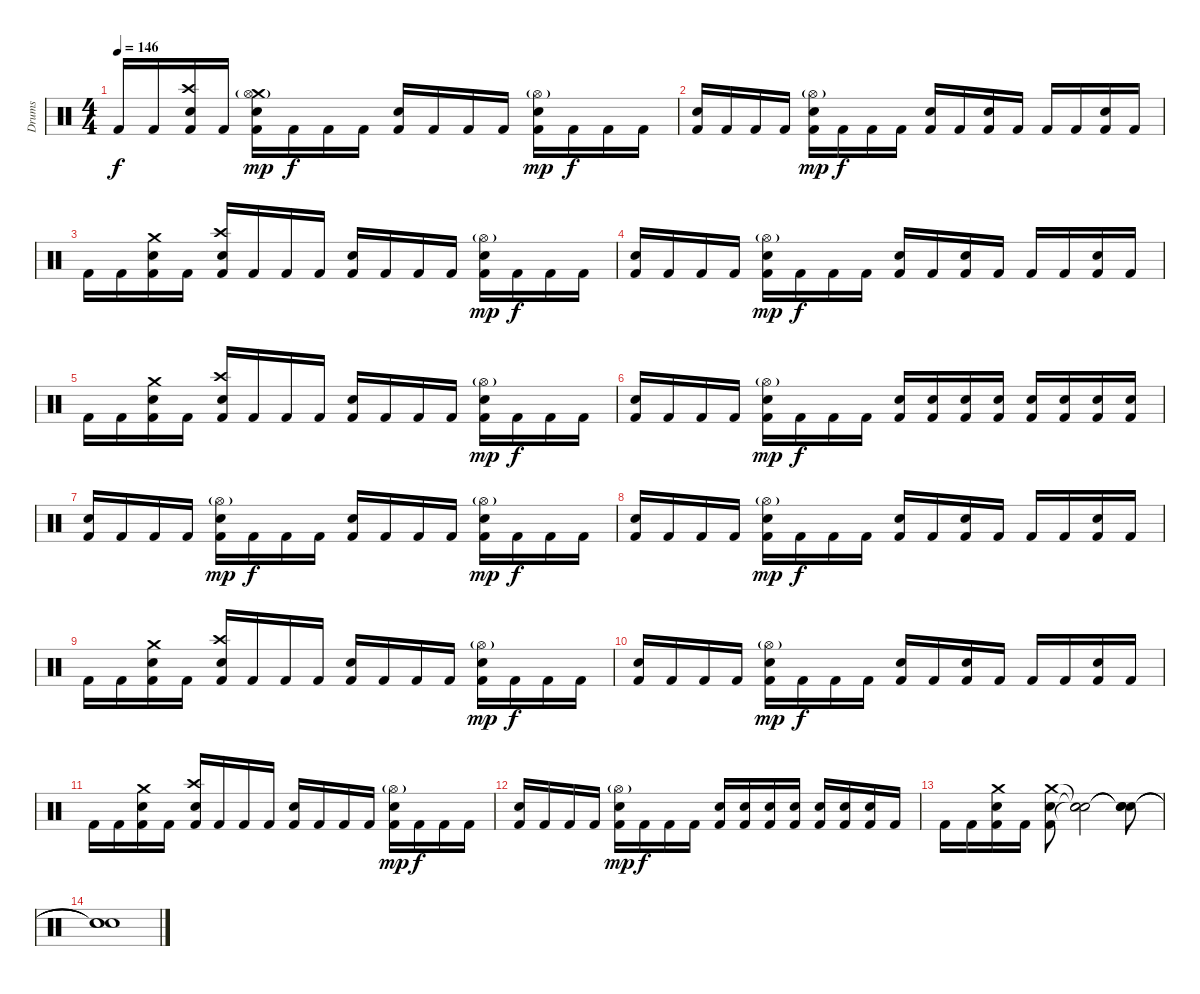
\track ("Drums" "Drums") {instrument percussion}
\staff {score}
\articulation defaults
\ts (4 4)
\tempo 146
\clef neutral
\ks c "Kick (hit) 2".16{dy f} "Kick (hit) 2".16
("Crash high (hit)" "Snare (hit) 2" "Kick (hit) 2").16 "Kick (hit) 2".16 ("Crash medium (hit)" "Snare (hit) 2" "Hi-Hat (open)"{g} "Kick (hit) 2").16{dy mp} "Kick (hit) 2".16{dy f} "Kick (hit) 2".16 "Kick (hit) 2".16 ("Snare (hit) 2" "Kick (hit) 2").16 "Kick (hit) 2".16 "Kick (hit) 2".16 "Kick (hit) 2".16 ("Snare (hit) 2" "Hi-Hat (open)"{g} "Kick (hit) 2").16{dy mp} "Kick (hit) 2".16{dy f} "Kick (hit) 2".16 "Kick (hit) 2".16 |
("Snare (hit) 2" "Kick (hit) 2").16 "Kick (hit) 2".16 "Kick (hit) 2".16 "Kick (hit) 2".16 ("Snare (hit) 2" "Hi-Hat (open)"{g} "Kick (hit) 2").16{dy mp} "Kick (hit) 2".16{dy f} "Kick (hit) 2".16 "Kick (hit) 2".16 ("Snare (hit) 2" "Kick (hit) 2").16 "Kick (hit) 2".16 ("Snare (hit) 2" "Kick (hit) 2").16 "Kick (hit) 2".16 "Kick (hit) 2".16 "Kick (hit) 2".16 ("Snare (hit) 2" "Kick (hit) 2").16 "Kick (hit) 2".16 |
"Kick (hit) 2".16 "Kick (hit) 2".16 ("Crash medium (hit)" "Snare (hit) 2" "Kick (hit) 2").16 "Kick (hit) 2".16 ("Crash high (hit)" "Snare (hit) 2" "Kick (hit) 2").16 "Kick (hit) 2".16 "Kick (hit) 2".16 "Kick (hit) 2".16 ("Snare (hit) 2" "Kick (hit) 2").16 "Kick (hit) 2".16 "Kick (hit) 2".16 "Kick (hit) 2".16 ("Snare (hit) 2" "Hi-Hat (open)"{g} "Kick (hit) 2").16{dy mp} "Kick (hit) 2".16{dy f} "Kick (hit) 2".16 "Kick (hit) 2".16 |
("Snare (hit) 2" "Kick (hit) 2").16 "Kick (hit) 2".16 "Kick (hit) 2".16 "Kick (hit) 2".16 ("Snare (hit) 2" "Hi-Hat (open)"{g} "Kick (hit) 2").16{dy mp} "Kick (hit) 2".16{dy f} "Kick (hit) 2".16 "Kick (hit) 2".16 ("Snare (hit) 2" "Kick (hit) 2").16 "Kick (hit) 2".16 ("Snare (hit) 2" "Kick (hit) 2").16 "Kick (hit) 2".16 "Kick (hit) 2".16 "Kick (hit) 2".16 ("Snare (hit) 2" "Kick (hit) 2").16 "Kick (hit) 2".16 |
"Kick (hit) 2".16 "Kick (hit) 2".16 ("Crash medium (hit)" "Snare (hit) 2" "Kick (hit) 2").16 "Kick (hit) 2".16 ("Crash high (hit)" "Snare (hit) 2" "Kick (hit) 2").16 "Kick (hit) 2".16 "Kick (hit) 2".16 "Kick (hit) 2".16 ("Snare (hit) 2" "Kick (hit) 2").16 "Kick (hit) 2".16 "Kick (hit) 2".16 "Kick (hit) 2".16 ("Snare (hit) 2" "Hi-Hat (open)"{g} "Kick (hit) 2").16{dy mp} "Kick (hit) 2".16{dy f} "Kick (hit) 2".16 "Kick (hit) 2".16 |
("Snare (hit) 2" "Kick (hit) 2").16 "Kick (hit) 2".16 "Kick (hit) 2".16 "Kick (hit) 2".16 ("Snare (hit) 2" "Hi-Hat (open)"{g} "Kick (hit) 2").16{dy mp} "Kick (hit) 2".16{dy f} "Kick (hit) 2".16 "Kick (hit) 2".16 ("Snare (hit) 2" "Kick (hit) 2").16 ("Snare (hit) 2" "Kick (hit) 2").16 ("Snare (hit) 2" "Kick (hit) 2").16 ("Snare (hit) 2" "Kick (hit) 2").16 ("Snare (hit) 2" "Kick (hit) 2").16 ("Snare (hit) 2" "Kick (hit) 2").16 ("Snare (hit) 2" "Kick (hit) 2").16 ("Snare (hit) 2" "Kick (hit) 2").16 |
("Snare (hit) 2" "Kick (hit) 2").16 "Kick (hit) 2".16 "Kick (hit) 2".16 "Kick (hit) 2".16 ("Snare (hit) 2" "Hi-Hat (open)"{g} "Kick (hit) 2").16{dy mp} "Kick (hit) 2".16{dy f} "Kick (hit) 2".16 "Kick (hit) 2".16 ("Snare (hit) 2" "Kick (hit) 2").16 "Kick (hit) 2".16 "Kick (hit) 2".16 "Kick (hit) 2".16 ("Snare (hit) 2" "Hi-Hat (open)"{g} "Kick (hit) 2").16{dy mp} "Kick (hit) 2".16{dy f} "Kick (hit) 2".16 "Kick (hit) 2".16 |
("Snare (hit) 2" "Kick (hit) 2").16 "Kick (hit) 2".16 "Kick (hit) 2".16 "Kick (hit) 2".16 ("Snare (hit) 2" "Hi-Hat (open)"{g} "Kick (hit) 2").16{dy mp} "Kick (hit) 2".16{dy f} "Kick (hit) 2".16 "Kick (hit) 2".16 ("Snare (hit) 2" "Kick (hit) 2").16 "Kick (hit) 2".16 ("Snare (hit) 2" "Kick (hit) 2").16 "Kick (hit) 2".16 "Kick (hit) 2".16 "Kick (hit) 2".16 ("Snare (hit) 2" "Kick (hit) 2").16 "Kick (hit) 2".16 |
"Kick (hit) 2".16 "Kick (hit) 2".16 ("Crash medium (hit)" "Snare (hit) 2" "Kick (hit) 2").16 "Kick (hit) 2".16 ("Crash high (hit)" "Snare (hit) 2" "Kick (hit) 2").16 "Kick (hit) 2".16 "Kick (hit) 2".16 "Kick (hit) 2".16 ("Snare (hit) 2" "Kick (hit) 2").16 "Kick (hit) 2".16 "Kick (hit) 2".16 "Kick (hit) 2".16 ("Snare (hit) 2" "Hi-Hat (open)"{g} "Kick (hit) 2").16{dy mp} "Kick (hit) 2".16{dy f} "Kick (hit) 2".16 "Kick (hit) 2".16 |
("Snare (hit) 2" "Kick (hit) 2").16 "Kick (hit) 2".16 "Kick (hit) 2".16 "Kick (hit) 2".16 ("Snare (hit) 2" "Hi-Hat (open)"{g} "Kick (hit) 2").16{dy mp} "Kick (hit) 2".16{dy f} "Kick (hit) 2".16 "Kick (hit) 2".16 ("Snare (hit) 2" "Kick (hit) 2").16 "Kick (hit) 2".16 ("Snare (hit) 2" "Kick (hit) 2").16 "Kick (hit) 2".16 "Kick (hit) 2".16 "Kick (hit) 2".16 ("Snare (hit) 2" "Kick (hit) 2").16 "Kick (hit) 2".16 |
"Kick (hit) 2".16 "Kick (hit) 2".16 ("Crash medium (hit)" "Snare (hit) 2" "Kick (hit) 2").16 "Kick (hit) 2".16 ("Crash high (hit)" "Snare (hit) 2" "Kick (hit) 2").16 "Kick (hit) 2".16 "Kick (hit) 2".16 "Kick (hit) 2".16 ("Snare (hit) 2" "Kick (hit) 2").16 "Kick (hit) 2".16 "Kick (hit) 2".16 "Kick (hit) 2".16 ("Snare (hit) 2" "Hi-Hat (open)"{g} "Kick (hit) 2").16{dy mp} "Kick (hit) 2".16{dy f} "Kick (hit) 2".16 "Kick (hit) 2".16 |
("Snare (hit) 2" "Kick (hit) 2").16 "Kick (hit) 2".16 "Kick (hit) 2".16 "Kick (hit) 2".16 ("Snare (hit) 2" "Hi-Hat (open)"{g} "Kick (hit) 2").16{dy mp} "Kick (hit) 2".16{dy f} "Kick (hit) 2".16 "Kick (hit) 2".16 ("Snare (hit) 2" "Kick (hit) 2").16 ("Snare (hit) 2" "Kick (hit) 2").16 ("Snare (hit) 2" "Kick (hit) 2").16 ("Snare (hit) 2" "Kick (hit) 2").16 ("Snare (hit) 2" "Kick (hit) 2").16 ("Snare (hit) 2" "Kick (hit) 2").16 ("Snare (hit) 2" "Kick (hit) 2").16 "Kick (hit) 2".16 |
"Kick (hit) 2".16 "Kick (hit) 2".16 ("Crash medium (hit)" "Snare (hit) 2" "Kick (hit) 2").16 "Kick (hit) 2".16 ("Crash medium (hit)" "Snare (hit) 2" "Kick (hit) 2").8 ("Snare (hit)"{t} "Snare (hit)"{t} "Snare (hit)"{t}).2 ("Snare (hit)"{t} "Snare (hit)"{t} "Snare (hit)"{t}).8 |
("Snare (hit)"{t} "Snare (hit)"{t} "Snare (hit)"{t}).1
